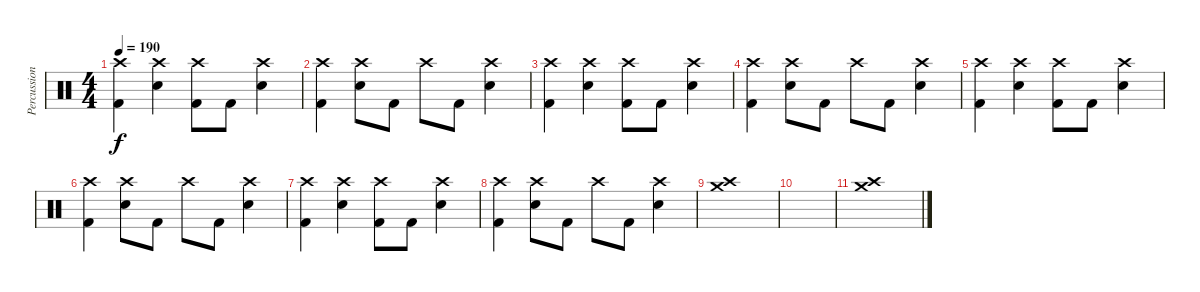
\track ("Percussioni" "Percussion") {instrument percussion}
\staff {score}
\articulation defaults
\ts (4 4)
\tempo 190
\clef neutral
\ks c
("Crash high (hit)" "Kick (hit) 2").4{dy f} ("Crash high (hit)" "Snare (hit) 2").4 ("Crash high (hit)" "Kick (hit) 2").8 "Kick (hit) 2".8 ("Crash high (hit)" "Snare (hit) 2").4 |
("Crash high (hit)" "Kick (hit) 2").4 ("Crash high (hit)" "Snare (hit) 2").8 "Kick (hit) 2".8 "Crash high (hit)".8 "Kick (hit) 2".8 ("Crash high (hit)" "Snare (hit) 2").4 |
("Crash high (hit)" "Kick (hit) 2").4 ("Crash high (hit)" "Snare (hit) 2").4 ("Crash high (hit)" "Kick (hit) 2").8 "Kick (hit) 2".8 ("Crash high (hit)" "Snare (hit) 2").4 |
("Crash high (hit)" "Kick (hit) 2").4 ("Crash high (hit)" "Snare (hit) 2").8 "Kick (hit) 2".8 "Crash high (hit)".8 "Kick (hit) 2".8 ("Crash high (hit)" "Snare (hit) 2").4 |
("Crash high (hit)" "Kick (hit) 2").4 ("Crash high (hit)" "Snare (hit) 2").4 ("Crash high (hit)" "Kick (hit) 2").8 "Kick (hit) 2".8 ("Crash high (hit)" "Snare (hit) 2").4 |
("Crash high (hit)" "Kick (hit) 2").4 ("Crash high (hit)" "Snare (hit) 2").8 "Kick (hit) 2".8 "Crash high (hit)".8 "Kick (hit) 2".8 ("Crash high (hit)" "Snare (hit) 2").4 |
("Crash high (hit)" "Kick (hit) 2").4 ("Crash high (hit)" "Snare (hit) 2").4 ("Crash high (hit)" "Kick (hit) 2").8 "Kick (hit) 2".8 ("Crash high (hit)" "Snare (hit) 2").4 |
("Crash high (hit)" "Kick (hit) 2").4 ("Crash high (hit)" "Snare (hit) 2").8 "Kick (hit) 2".8 "Crash high (hit)".8 "Kick (hit) 2".8 ("Crash high (hit)" "Snare (hit) 2").4 |
("Crash medium (hit)" "Crash high (hit)").1 |
|
("Crash medium (hit)" "Crash high (hit)").1
